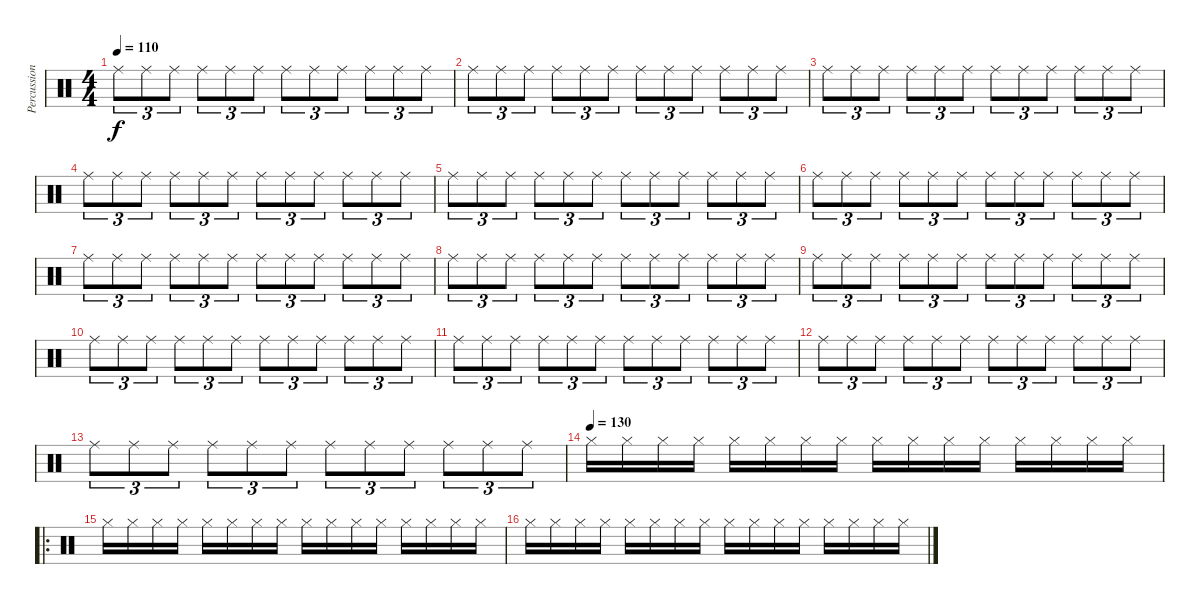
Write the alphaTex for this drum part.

\track ("Percussion" "Percussion") {instrument percussion}
\staff {score}
\articulation defaults
\ts (4 4)
\tempo 110
\clef neutral
\ks c "Ride (middle)".8{tu (3 2) dy f} "Ride (middle)".8{tu (3 2)} "Ride (middle)".8{tu (3 2)} "Ride (middle)".8{tu (3 2)} "Ride (middle)".8{tu (3 2)} "Ride (middle)".8{tu (3 2)} "Ride (middle)".8{tu (3 2)} "Ride (middle)".8{tu (3 2)} "Ride (middle)".8{tu (3 2)} "Ride (middle)".8{tu (3 2)} "Ride (middle)".8{tu (3 2)} "Ride (middle)".8{tu (3 2)}
|
"Ride (middle)".8{tu (3 2)} "Ride (middle)".8{tu (3 2)} "Ride (middle)".8{tu (3 2)} "Ride (middle)".8{tu (3 2)} "Ride (middle)".8{tu (3 2)} "Ride (middle)".8{tu (3 2)} "Ride (middle)".8{tu (3 2)} "Ride (middle)".8{tu (3 2)} "Ride (middle)".8{tu (3 2)} "Ride (middle)".8{tu (3 2)} "Ride (middle)".8{tu (3 2)} "Ride (middle)".8{tu (3 2)} |
"Ride (middle)".8{tu (3 2)} "Ride (middle)".8{tu (3 2)} "Ride (middle)".8{tu (3 2)} "Ride (middle)".8{tu (3 2)} "Ride (middle)".8{tu (3 2)} "Ride (middle)".8{tu (3 2)} "Ride (middle)".8{tu (3 2)} "Ride (middle)".8{tu (3 2)} "Ride (middle)".8{tu (3 2)} "Ride (middle)".8{tu (3 2)} "Ride (middle)".8{tu (3 2)} "Ride (middle)".8{tu (3 2)} |
"Ride (middle)".8{tu (3 2)} "Ride (middle)".8{tu (3 2)} "Ride (middle)".8{tu (3 2)} "Ride (middle)".8{tu (3 2)} "Ride (middle)".8{tu (3 2)} "Ride (middle)".8{tu (3 2)} "Ride (middle)".8{tu (3 2)} "Ride (middle)".8{tu (3 2)} "Ride (middle)".8{tu (3 2)} "Ride (middle)".8{tu (3 2)} "Ride (middle)".8{tu (3 2)} "Ride (middle)".8{tu (3 2)} |
"Ride (middle)".8{tu (3 2)} "Ride (middle)".8{tu (3 2)} "Ride (middle)".8{tu (3 2)} "Ride (middle)".8{tu (3 2)} "Ride (middle)".8{tu (3 2)} "Ride (middle)".8{tu (3 2)} "Ride (middle)".8{tu (3 2)} "Ride (middle)".8{tu (3 2)} "Ride (middle)".8{tu (3 2)} "Ride (middle)".8{tu (3 2)} "Ride (middle)".8{tu (3 2)} "Ride (middle)".8{tu (3 2)} |
"Ride (middle)".8{tu (3 2)} "Ride (middle)".8{tu (3 2)} "Ride (middle)".8{tu (3 2)} "Ride (middle)".8{tu (3 2)} "Ride (middle)".8{tu (3 2)} "Ride (middle)".8{tu (3 2)} "Ride (middle)".8{tu (3 2)} "Ride (middle)".8{tu (3 2)} "Ride (middle)".8{tu (3 2)} "Ride (middle)".8{tu (3 2)} "Ride (middle)".8{tu (3 2)} "Ride (middle)".8{tu (3 2)} |
"Ride (middle)".8{tu (3 2)} "Ride (middle)".8{tu (3 2)} "Ride (middle)".8{tu (3 2)} "Ride (middle)".8{tu (3 2)} "Ride (middle)".8{tu (3 2)} "Ride (middle)".8{tu (3 2)} "Ride (middle)".8{tu (3 2)} "Ride (middle)".8{tu (3 2)} "Ride (middle)".8{tu (3 2)} "Ride (middle)".8{tu (3 2)} "Ride (middle)".8{tu (3 2)} "Ride (middle)".8{tu (3 2)} |
"Ride (middle)".8{tu (3 2)} "Ride (middle)".8{tu (3 2)} "Ride (middle)".8{tu (3 2)} "Ride (middle)".8{tu (3 2)} "Ride (middle)".8{tu (3 2)} "Ride (middle)".8{tu (3 2)} "Ride (middle)".8{tu (3 2)} "Ride (middle)".8{tu (3 2)} "Ride (middle)".8{tu (3 2)} "Ride (middle)".8{tu (3 2)} "Ride (middle)".8{tu (3 2)} "Ride (middle)".8{tu (3 2)} |
"Ride (middle)".8{tu (3 2)} "Ride (middle)".8{tu (3 2)} "Ride (middle)".8{tu (3 2)} "Ride (middle)".8{tu (3 2)} "Ride (middle)".8{tu (3 2)} "Ride (middle)".8{tu (3 2)} "Ride (middle)".8{tu (3 2)} "Ride (middle)".8{tu (3 2)} "Ride (middle)".8{tu (3 2)} "Ride (middle)".8{tu (3 2)} "Ride (middle)".8{tu (3 2)} "Ride (middle)".8{tu (3 2)} |
"Ride (middle)".8{tu (3 2)} "Ride (middle)".8{tu (3 2)} "Ride (middle)".8{tu (3 2)} "Ride (middle)".8{tu (3 2)} "Ride (middle)".8{tu (3 2)} "Ride (middle)".8{tu (3 2)} "Ride (middle)".8{tu (3 2)} "Ride (middle)".8{tu (3 2)} "Ride (middle)".8{tu (3 2)} "Ride (middle)".8{tu (3 2)} "Ride (middle)".8{tu (3 2)} "Ride (middle)".8{tu (3 2)} |
"Ride (middle)".8{tu (3 2)} "Ride (middle)".8{tu (3 2)} "Ride (middle)".8{tu (3 2)} "Ride (middle)".8{tu (3 2)} "Ride (middle)".8{tu (3 2)} "Ride (middle)".8{tu (3 2)} "Ride (middle)".8{tu (3 2)} "Ride (middle)".8{tu (3 2)} "Ride (middle)".8{tu (3 2)} "Ride (middle)".8{tu (3 2)} "Ride (middle)".8{tu (3 2)} "Ride (middle)".8{tu (3 2)} |
"Ride (middle)".8{tu (3 2)} "Ride (middle)".8{tu (3 2)} "Ride (middle)".8{tu (3 2)} "Ride (middle)".8{tu (3 2)} "Ride (middle)".8{tu (3 2)} "Ride (middle)".8{tu (3 2)} "Ride (middle)".8{tu (3 2)} "Ride (middle)".8{tu (3 2)} "Ride (middle)".8{tu (3 2)} "Ride (middle)".8{tu (3 2)} "Ride (middle)".8{tu (3 2)} "Ride (middle)".8{tu (3 2)} |
"Ride (middle)".8{tu (3 2)} "Ride (middle)".8{tu (3 2)} "Ride (middle)".8{tu (3 2)} "Ride (middle)".8{tu (3 2)} "Ride (middle)".8{tu (3 2)} "Ride (middle)".8{tu (3 2)} "Ride (middle)".8{tu (3 2)} "Ride (middle)".8{tu (3 2)} "Ride (middle)".8{tu (3 2)} "Ride (middle)".8{tu (3 2)} "Ride (middle)".8{tu (3 2)} "Ride (middle)".8{tu (3 2)} |
\tempo (130)
"Hi-Hat (closed)".16 "Hi-Hat (closed)".16 "Hi-Hat (closed)".16 "Hi-Hat (closed)".16 "Hi-Hat (closed)".16 "Hi-Hat (closed)".16 "Hi-Hat (closed)".16 "Hi-Hat (closed)".16 "Hi-Hat (closed)".16 "Hi-Hat (closed)".16 "Hi-Hat (closed)".16 "Hi-Hat (closed)".16 "Hi-Hat (closed)".16 "Hi-Hat (closed)".16 "Hi-Hat (closed)".16 "Hi-Hat (closed)".16 |
\ro "Hi-Hat (closed)".16 "Hi-Hat (closed)".16 "Hi-Hat (closed)".16 "Hi-Hat (closed)".16 "Hi-Hat (closed)".16 "Hi-Hat (closed)".16 "Hi-Hat (closed)".16 "Hi-Hat (closed)".16 "Hi-Hat (closed)".16 "Hi-Hat (closed)".16 "Hi-Hat (closed)".16 "Hi-Hat (closed)".16 "Hi-Hat (closed)".16 "Hi-Hat (closed)".16 "Hi-Hat (closed)".16 "Hi-Hat (closed)".16
|
"Hi-Hat (closed)".16 "Hi-Hat (closed)".16 "Hi-Hat (closed)".16 "Hi-Hat (closed)".16 "Hi-Hat (closed)".16 "Hi-Hat (closed)".16 "Hi-Hat (closed)".16 "Hi-Hat (closed)".16 "Hi-Hat (closed)".16 "Hi-Hat (closed)".16 "Hi-Hat (closed)".16 "Hi-Hat (closed)".16 "Hi-Hat (closed)".16 "Hi-Hat (closed)".16 "Hi-Hat (closed)".16 "Hi-Hat (closed)".16
